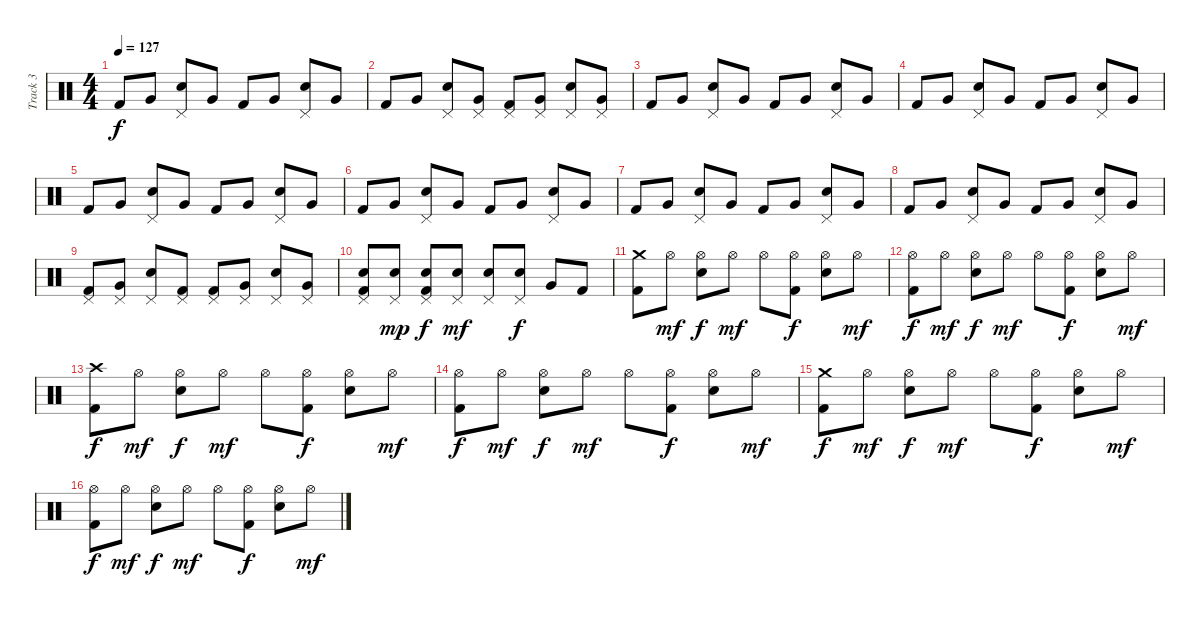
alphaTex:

\track ("Track 3" "Track 3") {instrument percussion}
\staff {score}
\articulation defaults
\ts (4 4)
\tempo 127
\clef neutral
\ks c "Kick (hit) 2".8{dy f} "Very Low Tom (hit)".8
("Pedal Hi-Hat (hit)" "Snare (hit) 2").8 "Very Low Tom (hit)".8 "Kick (hit) 2".8 "Very Low Tom (hit)".8 ("Pedal Hi-Hat (hit)" "Snare (hit) 2").8 "Very Low Tom (hit)".8 |
"Kick (hit) 2".8 "Very Low Tom (hit)".8 ("Pedal Hi-Hat (hit)" "Snare (hit) 2").8 ("Pedal Hi-Hat (hit)" "Very Low Tom (hit)").8 ("Pedal Hi-Hat (hit)" "Kick (hit) 2").8 ("Pedal Hi-Hat (hit)" "Very Low Tom (hit)").8 ("Pedal Hi-Hat (hit)" "Snare (hit) 2").8 ("Pedal Hi-Hat (hit)" "Very Low Tom (hit)").8 |
"Kick (hit) 2".8 "Very Low Tom (hit)".8 ("Pedal Hi-Hat (hit)" "Snare (hit) 2").8 "Very Low Tom (hit)".8 "Kick (hit) 2".8 "Very Low Tom (hit)".8 ("Pedal Hi-Hat (hit)" "Snare (hit) 2").8 "Very Low Tom (hit)".8 |
"Kick (hit) 2".8 "Very Low Tom (hit)".8 ("Pedal Hi-Hat (hit)" "Snare (hit) 2").8 "Very Low Tom (hit)".8 "Kick (hit) 2".8 "Very Low Tom (hit)".8 ("Pedal Hi-Hat (hit)" "Snare (hit) 2").8 "Very Low Tom (hit)".8 |
"Kick (hit) 2".8 "Very Low Tom (hit)".8 ("Pedal Hi-Hat (hit)" "Snare (hit) 2").8 "Very Low Tom (hit)".8 "Kick (hit) 2".8 "Very Low Tom (hit)".8 ("Pedal Hi-Hat (hit)" "Snare (hit) 2").8 "Very Low Tom (hit)".8 |
"Kick (hit) 2".8 "Very Low Tom (hit)".8 ("Pedal Hi-Hat (hit)" "Snare (hit) 2").8 "Very Low Tom (hit)".8 "Kick (hit) 2".8 "Very Low Tom (hit)".8 ("Pedal Hi-Hat (hit)" "Snare (hit) 2").8 "Very Low Tom (hit)".8 |
"Kick (hit) 2".8 "Very Low Tom (hit)".8 ("Pedal Hi-Hat (hit)" "Snare (hit) 2").8 "Very Low Tom (hit)".8 "Kick (hit) 2".8 "Very Low Tom (hit)".8 ("Pedal Hi-Hat (hit)" "Snare (hit) 2").8 "Very Low Tom (hit)".8 |
"Kick (hit) 2".8 "Very Low Tom (hit)".8 ("Pedal Hi-Hat (hit)" "Snare (hit) 2").8 "Very Low Tom (hit)".8 "Kick (hit) 2".8 "Very Low Tom (hit)".8 ("Pedal Hi-Hat (hit)" "Snare (hit) 2").8 "Very Low Tom (hit)".8 |
("Pedal Hi-Hat (hit)" "Kick (hit) 2").8 ("Pedal Hi-Hat (hit)" "Very Low Tom (hit)").8 ("Pedal Hi-Hat (hit)" "Snare (hit) 2").8 ("Pedal Hi-Hat (hit)" "Kick (hit) 2").8 ("Pedal Hi-Hat (hit)" "Kick (hit) 2").8 ("Pedal Hi-Hat (hit)" "Very Low Tom (hit)").8 ("Pedal Hi-Hat (hit)" "Snare (hit) 2").8 ("Pedal Hi-Hat (hit)" "Very Low Tom (hit)").8 |
("Pedal Hi-Hat (hit)" "Snare (hit) 2" "Kick (hit) 2").8 ("Pedal Hi-Hat (hit)" "Snare (hit) 2").8{dy mp} ("Pedal Hi-Hat (hit)" "Snare (hit) 2" "Kick (hit) 2").8{dy f} ("Pedal Hi-Hat (hit)" "Snare (hit) 2").8{dy mf} ("Pedal Hi-Hat (hit)" "Snare (hit) 2").8 ("Pedal Hi-Hat (hit)" "Snare (hit) 2").8{dy f} "Very Low Tom (hit)".8 "Kick (hit) 2".8 |
("Crash medium (hit)" "Kick (hit) 2").8 "Hi-Hat (open)".8{dy mf} ("Hi-Hat (open)" "Snare (hit) 2").8{dy f} "Hi-Hat (open)".8{dy mf} "Hi-Hat (open)".8 ("Hi-Hat (open)" "Kick (hit) 2").8{dy f} ("Hi-Hat (open)" "Snare (hit) 2").8 "Hi-Hat (open)".8{dy mf} |
("Hi-Hat (open)" "Kick (hit) 2").8{dy f} "Hi-Hat (open)".8{dy mf} ("Hi-Hat (open)" "Snare (hit) 2").8{dy f} "Hi-Hat (open)".8{dy mf} "Hi-Hat (open)".8 ("Hi-Hat (open)" "Kick (hit) 2").8{dy f} ("Hi-Hat (open)" "Snare (hit) 2").8 "Hi-Hat (open)".8{dy mf} |
("Crash high (hit)" "Kick (hit) 2").8{dy f} "Hi-Hat (open)".8{dy mf} ("Hi-Hat (open)" "Snare (hit) 2").8{dy f} "Hi-Hat (open)".8{dy mf} "Hi-Hat (open)".8 ("Hi-Hat (open)" "Kick (hit) 2").8{dy f} ("Hi-Hat (open)" "Snare (hit) 2").8 "Hi-Hat (open)".8{dy mf} |
("Hi-Hat (open)" "Kick (hit) 2").8{dy f} "Hi-Hat (open)".8{dy mf} ("Hi-Hat (open)" "Snare (hit) 2").8{dy f} "Hi-Hat (open)".8{dy mf} "Hi-Hat (open)".8 ("Hi-Hat (open)" "Kick (hit) 2").8{dy f} ("Hi-Hat (open)" "Snare (hit) 2").8 "Hi-Hat (open)".8{dy mf} |
("Crash medium (hit)" "Kick (hit) 2").8{dy f} "Hi-Hat (open)".8{dy mf} ("Hi-Hat (open)" "Snare (hit) 2").8{dy f} "Hi-Hat (open)".8{dy mf} "Hi-Hat (open)".8 ("Hi-Hat (open)" "Kick (hit) 2").8{dy f} ("Hi-Hat (open)" "Snare (hit) 2").8 "Hi-Hat (open)".8{dy mf} |
("Hi-Hat (open)" "Kick (hit) 2").8{dy f} "Hi-Hat (open)".8{dy mf} ("Hi-Hat (open)" "Snare (hit) 2").8{dy f} "Hi-Hat (open)".8{dy mf} "Hi-Hat (open)".8 ("Hi-Hat (open)" "Kick (hit) 2").8{dy f} ("Hi-Hat (open)" "Snare (hit) 2").8 "Hi-Hat (open)".8{dy mf}
